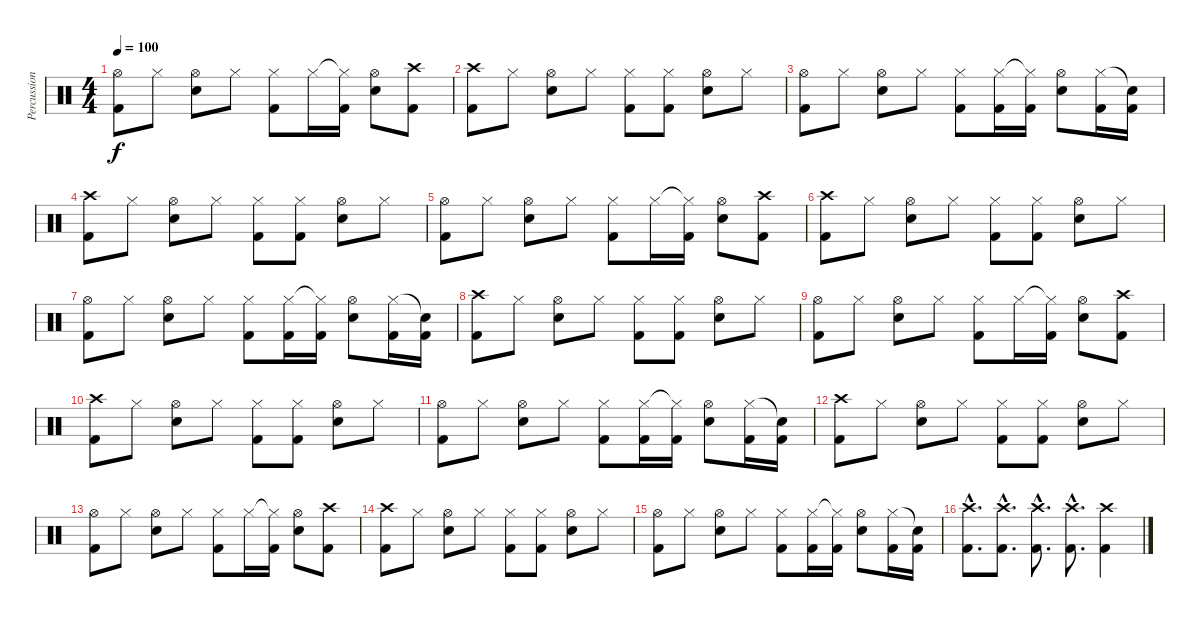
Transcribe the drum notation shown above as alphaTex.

\track ("Percussions" "Percussion") {instrument percussion}
\staff {score}
\articulation defaults
\ts (4 4)
\tempo 100
\clef neutral
\ks c
("Hi-Hat (open)" "Kick (hit) 2").8{dy f} "Hi-Hat (closed)".8 ("Hi-Hat (open)" "Snare (hit) 2").8 "Hi-Hat (closed)".8 ("Hi-Hat (closed)" "Kick (hit) 2").8 "Hi-Hat (closed)".16 ("Hi-Hat (closed)"{t} "Kick (hit) 2").16 ("Hi-Hat (open)" "Snare (hit) 2").8 ("Crash high (hit)" "Kick (hit) 2").8 |
("Crash high (hit)" "Kick (hit) 2").8 "Hi-Hat (closed)".8 ("Hi-Hat (open)" "Snare (hit) 2").8 "Hi-Hat (closed)".8 ("Hi-Hat (closed)" "Kick (hit) 2").8 ("Hi-Hat (closed)" "Kick (hit) 2").8 ("Hi-Hat (open)" "Snare (hit) 2").8 "Hi-Hat (closed)".8 |
("Hi-Hat (open)" "Kick (hit) 2").8 "Hi-Hat (closed)".8 ("Hi-Hat (open)" "Snare (hit) 2").8 "Hi-Hat (closed)".8 ("Hi-Hat (closed)" "Kick (hit) 2").8 ("Hi-Hat (closed)" "Kick (hit) 2").16 ("Hi-Hat (closed)"{t} "Kick (hit) 2").16 ("Hi-Hat (open)" "Snare (hit) 2").8 ("Hi-Hat (closed)" "Kick (hit) 2").16 ("Snare (hit)"{t} "Kick (hit) 2").16 |
("Crash high (hit)" "Kick (hit) 2").8 "Hi-Hat (closed)".8 ("Hi-Hat (open)" "Snare (hit) 2").8 "Hi-Hat (closed)".8 ("Hi-Hat (closed)" "Kick (hit) 2").8 ("Hi-Hat (closed)" "Kick (hit) 2").8 ("Hi-Hat (open)" "Snare (hit) 2").8 "Hi-Hat (closed)".8 |
("Hi-Hat (open)" "Kick (hit) 2").8 "Hi-Hat (closed)".8 ("Hi-Hat (open)" "Snare (hit) 2").8 "Hi-Hat (closed)".8 ("Hi-Hat (closed)" "Kick (hit) 2").8 "Hi-Hat (closed)".16 ("Hi-Hat (closed)"{t} "Kick (hit) 2").16 ("Hi-Hat (open)" "Snare (hit) 2").8 ("Crash high (hit)" "Kick (hit) 2").8 |
("Crash high (hit)" "Kick (hit) 2").8 "Hi-Hat (closed)".8 ("Hi-Hat (open)" "Snare (hit) 2").8 "Hi-Hat (closed)".8 ("Hi-Hat (closed)" "Kick (hit) 2").8 ("Hi-Hat (closed)" "Kick (hit) 2").8 ("Hi-Hat (open)" "Snare (hit) 2").8 "Hi-Hat (closed)".8 |
("Hi-Hat (open)" "Kick (hit) 2").8 "Hi-Hat (closed)".8 ("Hi-Hat (open)" "Snare (hit) 2").8 "Hi-Hat (closed)".8 ("Hi-Hat (closed)" "Kick (hit) 2").8 ("Hi-Hat (closed)" "Kick (hit) 2").16 ("Hi-Hat (closed)"{t} "Kick (hit) 2").16 ("Hi-Hat (open)" "Snare (hit) 2").8 ("Hi-Hat (closed)" "Kick (hit) 2").16 ("Snare (hit)"{t} "Kick (hit) 2").16 |
("Crash high (hit)" "Kick (hit) 2").8 "Hi-Hat (closed)".8 ("Hi-Hat (open)" "Snare (hit) 2").8 "Hi-Hat (closed)".8 ("Hi-Hat (closed)" "Kick (hit) 2").8 ("Hi-Hat (closed)" "Kick (hit) 2").8 ("Hi-Hat (open)" "Snare (hit) 2").8 "Hi-Hat (closed)".8 |
("Hi-Hat (open)" "Kick (hit) 2").8 "Hi-Hat (closed)".8 ("Hi-Hat (open)" "Snare (hit) 2").8 "Hi-Hat (closed)".8 ("Hi-Hat (closed)" "Kick (hit) 2").8 "Hi-Hat (closed)".16 ("Hi-Hat (closed)"{t} "Kick (hit) 2").16 ("Hi-Hat (open)" "Snare (hit) 2").8 ("Crash high (hit)" "Kick (hit) 2").8 |
("Crash high (hit)" "Kick (hit) 2").8 "Hi-Hat (closed)".8 ("Hi-Hat (open)" "Snare (hit) 2").8 "Hi-Hat (closed)".8 ("Hi-Hat (closed)" "Kick (hit) 2").8 ("Hi-Hat (closed)" "Kick (hit) 2").8 ("Hi-Hat (open)" "Snare (hit) 2").8 "Hi-Hat (closed)".8 |
("Hi-Hat (open)" "Kick (hit) 2").8 "Hi-Hat (closed)".8 ("Hi-Hat (open)" "Snare (hit) 2").8 "Hi-Hat (closed)".8 ("Hi-Hat (closed)" "Kick (hit) 2").8 ("Hi-Hat (closed)" "Kick (hit) 2").16 ("Hi-Hat (closed)"{t} "Kick (hit) 2").16 ("Hi-Hat (open)" "Snare (hit) 2").8 ("Hi-Hat (closed)" "Kick (hit) 2").16 ("Snare (hit)"{t} "Kick (hit) 2").16 |
("Crash high (hit)" "Kick (hit) 2").8 "Hi-Hat (closed)".8 ("Hi-Hat (open)" "Snare (hit) 2").8 "Hi-Hat (closed)".8 ("Hi-Hat (closed)" "Kick (hit) 2").8 ("Hi-Hat (closed)" "Kick (hit) 2").8 ("Hi-Hat (open)" "Snare (hit) 2").8 "Hi-Hat (closed)".8 |
("Hi-Hat (open)" "Kick (hit) 2").8 "Hi-Hat (closed)".8 ("Hi-Hat (open)" "Snare (hit) 2").8 "Hi-Hat (closed)".8 ("Hi-Hat (closed)" "Kick (hit) 2").8 "Hi-Hat (closed)".16 ("Hi-Hat (closed)"{t} "Kick (hit) 2").16 ("Hi-Hat (open)" "Snare (hit) 2").8 ("Crash high (hit)" "Kick (hit) 2").8 |
("Crash high (hit)" "Kick (hit) 2").8 "Hi-Hat (closed)".8 ("Hi-Hat (open)" "Snare (hit) 2").8 "Hi-Hat (closed)".8 ("Hi-Hat (closed)" "Kick (hit) 2").8 ("Hi-Hat (closed)" "Kick (hit) 2").8 ("Hi-Hat (open)" "Snare (hit) 2").8 "Hi-Hat (closed)".8 |
("Hi-Hat (open)" "Kick (hit) 2").8 "Hi-Hat (closed)".8 ("Hi-Hat (open)" "Snare (hit) 2").8 "Hi-Hat (closed)".8 ("Hi-Hat (closed)" "Kick (hit) 2").8 ("Hi-Hat (closed)" "Kick (hit) 2").16 ("Hi-Hat (closed)"{t} "Kick (hit) 2").16 ("Hi-Hat (open)" "Snare (hit) 2").8 ("Hi-Hat (closed)" "Kick (hit) 2").16 ("Snare (hit)"{t} "Kick (hit) 2").16 |
("Crash high (hit)"{hac} "Kick (hit) 2"{hac}).8{d} ("Crash high (hit)"{hac} "Kick (hit) 2"{hac}).8{d} ("Crash high (hit)"{hac} "Kick (hit) 2"{hac}).8{d} ("Crash high (hit)"{hac} "Kick (hit) 2"{hac}).8{d} ("Crash high (hit)" "Kick (hit) 2").4
